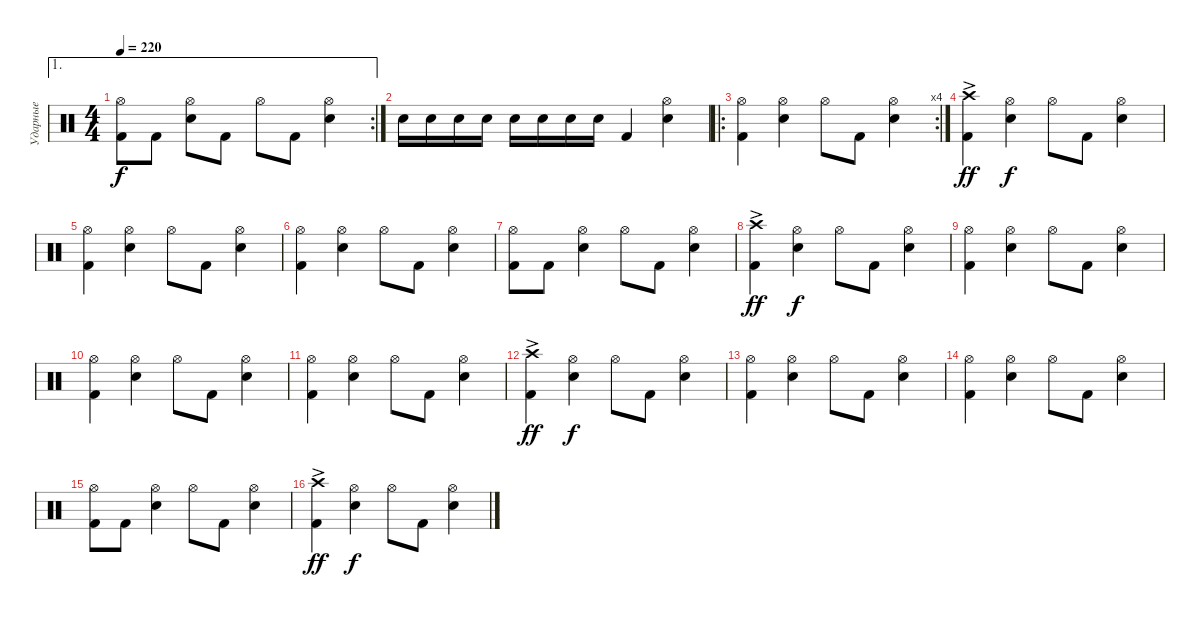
\track ("Ударные" "Ударные") {instrument percussion}
\staff {score}
\articulation defaults
\ae 1
\rc 2
\ts (4 4)
\tempo 220
\clef neutral
\ks c
("Kick (hit) 2" "Hi-Hat (open)").8{dy f} "Kick (hit) 2".8 ("Snare (hit) 2" "Hi-Hat (open)").8 "Kick (hit) 2".8 "Hi-Hat (open)".8 "Kick (hit) 2".8 ("Snare (hit) 2" "Hi-Hat (open)").4 |
"Snare (hit) 2".16 "Snare (hit) 2".16 "Snare (hit) 2".16 "Snare (hit) 2".16 "Snare (hit) 2".16 "Snare (hit) 2".16 "Snare (hit) 2".16 "Snare (hit) 2".16 "Kick (hit) 2".4 ("Snare (hit) 2" "Hi-Hat (open)").4 |
\ro
\rc 4
("Kick (hit) 2" "Hi-Hat (open)").4 ("Snare (hit) 2" "Hi-Hat (open)").4 "Hi-Hat (open)".8 "Kick (hit) 2".8 ("Snare (hit) 2" "Hi-Hat (open)").4 |
("Kick (hit) 2" "Crash high (hit)"{ac}).4{dy ff} ("Snare (hit) 2" "Hi-Hat (open)").4{dy f} "Hi-Hat (open)".8 "Kick (hit) 2".8 ("Snare (hit) 2" "Hi-Hat (open)").4 |
("Kick (hit) 2" "Hi-Hat (open)").4 ("Snare (hit) 2" "Hi-Hat (open)").4 "Hi-Hat (open)".8 "Kick (hit) 2".8 ("Snare (hit) 2" "Hi-Hat (open)").4 |
("Kick (hit) 2" "Hi-Hat (open)").4 ("Snare (hit) 2" "Hi-Hat (open)").4 "Hi-Hat (open)".8 "Kick (hit) 2".8 ("Snare (hit) 2" "Hi-Hat (open)").4 |
("Kick (hit) 2" "Hi-Hat (open)").8 "Kick (hit) 2".8 ("Snare (hit) 2" "Hi-Hat (open)").4 "Hi-Hat (open)".8 "Kick (hit) 2".8 ("Snare (hit) 2" "Hi-Hat (open)").4 |
("Kick (hit) 2" "Crash high (hit)"{ac}).4{dy ff} ("Snare (hit) 2" "Hi-Hat (open)").4{dy f} "Hi-Hat (open)".8 "Kick (hit) 2".8 ("Snare (hit) 2" "Hi-Hat (open)").4 |
("Kick (hit) 2" "Hi-Hat (open)").4 ("Snare (hit) 2" "Hi-Hat (open)").4 "Hi-Hat (open)".8 "Kick (hit) 2".8 ("Snare (hit) 2" "Hi-Hat (open)").4 |
("Kick (hit) 2" "Hi-Hat (open)").4 ("Snare (hit) 2" "Hi-Hat (open)").4 "Hi-Hat (open)".8 "Kick (hit) 2".8 ("Snare (hit) 2" "Hi-Hat (open)").4 |
("Kick (hit) 2" "Hi-Hat (open)").4 ("Snare (hit) 2" "Hi-Hat (open)").4 "Hi-Hat (open)".8 "Kick (hit) 2".8 ("Snare (hit) 2" "Hi-Hat (open)").4 |
("Kick (hit) 2" "Crash high (hit)"{ac}).4{dy ff} ("Snare (hit) 2" "Hi-Hat (open)").4{dy f} "Hi-Hat (open)".8 "Kick (hit) 2".8 ("Snare (hit) 2" "Hi-Hat (open)").4 |
("Kick (hit) 2" "Hi-Hat (open)").4 ("Snare (hit) 2" "Hi-Hat (open)").4 "Hi-Hat (open)".8 "Kick (hit) 2".8 ("Snare (hit) 2" "Hi-Hat (open)").4 |
("Kick (hit) 2" "Hi-Hat (open)").4 ("Snare (hit) 2" "Hi-Hat (open)").4 "Hi-Hat (open)".8 "Kick (hit) 2".8 ("Snare (hit) 2" "Hi-Hat (open)").4 |
("Kick (hit) 2" "Hi-Hat (open)").8 "Kick (hit) 2".8 ("Snare (hit) 2" "Hi-Hat (open)").4 "Hi-Hat (open)".8 "Kick (hit) 2".8 ("Snare (hit) 2" "Hi-Hat (open)").4 |
("Kick (hit) 2" "Crash high (hit)"{ac}).4{dy ff} ("Snare (hit) 2" "Hi-Hat (open)").4{dy f} "Hi-Hat (open)".8 "Kick (hit) 2".8 ("Snare (hit) 2" "Hi-Hat (open)").4
